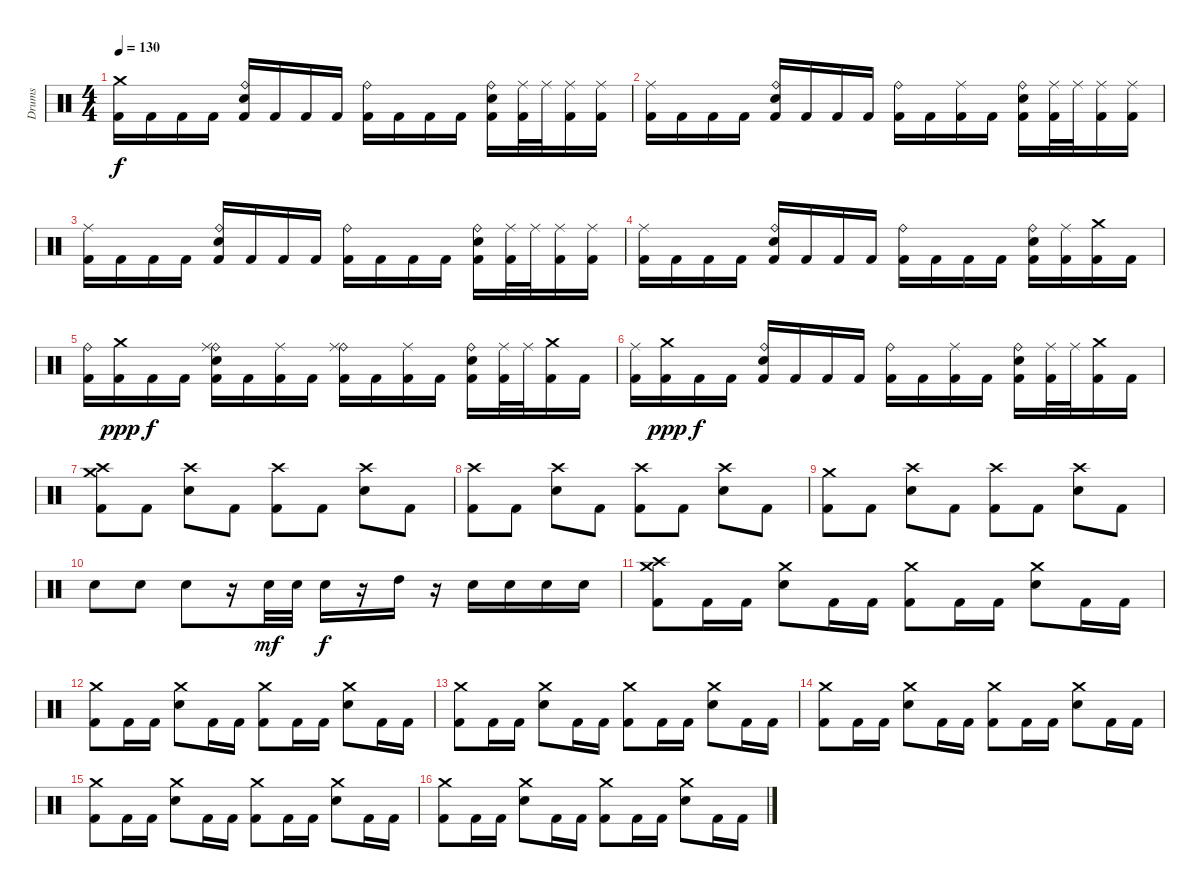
\track ("Drums" "Drums") {instrument percussion}
\staff {score}
\articulation defaults
\ts (4 4)
\tempo 130
\clef neutral
\ks c
("Crash medium (hit)" "Kick (hit) 2").16{dy f} "Kick (hit) 2".16 "Kick (hit) 2".16 "Kick (hit) 2".16 ("Ride (bell)" "Snare (hit) 2" "Kick (hit) 2").16 "Kick (hit) 2".16 "Kick (hit) 2".16 "Kick (hit) 2".16 ("Ride (bell)" "Kick (hit) 2").16 "Kick (hit) 2".16 "Kick (hit) 2".16 "Kick (hit) 2".16 ("Ride (bell)" "Snare (hit) 2" "Kick (hit) 2").16 ("Ride (middle)" "Kick (hit) 2").32 "Ride (middle)".32 ("Ride (middle)" "Kick (hit) 2").16 ("Ride (middle)" "Kick (hit) 2").16 |
("Ride (middle)" "Kick (hit) 2").16 "Kick (hit) 2".16 "Kick (hit) 2".16 "Kick (hit) 2".16 ("Ride (bell)" "Snare (hit) 2" "Kick (hit) 2").16 "Kick (hit) 2".16 "Kick (hit) 2".16 "Kick (hit) 2".16 ("Ride (bell)" "Kick (hit) 2").16 "Kick (hit) 2".16 ("Ride (middle)" "Kick (hit) 2").16 "Kick (hit) 2".16 ("Ride (bell)" "Snare (hit) 2" "Kick (hit) 2").16 ("Ride (middle)" "Kick (hit) 2").32 "Ride (middle)".32 ("Ride (middle)" "Kick (hit) 2").16 ("Ride (middle)" "Kick (hit) 2").16 |
("Ride (middle)" "Kick (hit) 2").16 "Kick (hit) 2".16 "Kick (hit) 2".16 "Kick (hit) 2".16 ("Ride (bell)" "Snare (hit) 2" "Kick (hit) 2").16 "Kick (hit) 2".16 "Kick (hit) 2".16 "Kick (hit) 2".16 ("Ride (bell)" "Kick (hit) 2").16 "Kick (hit) 2".16 "Kick (hit) 2".16 "Kick (hit) 2".16 ("Ride (bell)" "Snare (hit) 2" "Kick (hit) 2").16 ("Ride (middle)" "Kick (hit) 2").32 "Ride (middle)".32 ("Ride (middle)" "Kick (hit) 2").16 ("Ride (middle)" "Kick (hit) 2").16 |
("Ride (middle)" "Kick (hit) 2").16 "Kick (hit) 2".16 "Kick (hit) 2".16 "Kick (hit) 2".16 ("Ride (bell)" "Snare (hit) 2" "Kick (hit) 2").16 "Kick (hit) 2".16 "Kick (hit) 2".16 "Kick (hit) 2".16 ("Ride (bell)" "Kick (hit) 2").16 "Kick (hit) 2".16 "Kick (hit) 2".16 "Kick (hit) 2".16 ("Ride (bell)" "Snare (hit) 2" "Kick (hit) 2").16 ("Ride (middle)" "Kick (hit) 2").16 ("Crash medium (hit)" "Kick (hit) 2").16 "Kick (hit) 2".16 |
("Ride (bell)" "Kick (hit) 2").16 ("Crash medium (hit)" "Kick (hit) 2").16{dy ppp} "Kick (hit) 2".16{dy f} "Kick (hit) 2".16 ("Ride (bell)" "Ride (middle)" "Snare (hit) 2" "Kick (hit) 2").16 "Kick (hit) 2".16 ("Ride (middle)" "Kick (hit) 2").16 "Kick (hit) 2".16 ("Ride (bell)" "Ride (middle)" "Kick (hit) 2").16 "Kick (hit) 2".16 ("Ride (middle)" "Kick (hit) 2").16 "Kick (hit) 2".16 ("Ride (bell)" "Snare (hit) 2" "Kick (hit) 2").16 ("Ride (middle)" "Kick (hit) 2").32 "Ride (middle)".32 ("Crash medium (hit)" "Kick (hit) 2").16 "Kick (hit) 2".16 |
("Ride (middle)" "Kick (hit) 2").16 ("Crash medium (hit)" "Kick (hit) 2").16{dy ppp} "Kick (hit) 2".16{dy f} "Kick (hit) 2".16 ("Ride (bell)" "Snare (hit) 2" "Kick (hit) 2").16 "Kick (hit) 2".16 "Kick (hit) 2".16 "Kick (hit) 2".16 ("Ride (bell)" "Kick (hit) 2").16 "Kick (hit) 2".16 ("Ride (middle)" "Kick (hit) 2").16 "Kick (hit) 2".16 ("Ride (bell)" "Snare (hit) 2" "Kick (hit) 2").16 ("Ride (middle)" "Kick (hit) 2").32 "Ride (middle)".32 ("Crash medium (hit)" "Kick (hit) 2").16 "Kick (hit) 2".16 |
("Crash high (hit)" "Crash medium (hit)" "Kick (hit) 2").8 "Kick (hit) 2".8 ("Crash high (hit)" "Snare (hit) 2").8 "Kick (hit) 2".8 ("Crash high (hit)" "Kick (hit) 2").8 "Kick (hit) 2".8 ("Crash high (hit)" "Snare (hit) 2").8 "Kick (hit) 2".8 |
("Crash high (hit)" "Kick (hit) 2").8 "Kick (hit) 2".8 ("Crash high (hit)" "Snare (hit) 2").8 "Kick (hit) 2".8 ("Crash high (hit)" "Kick (hit) 2").8 "Kick (hit) 2".8 ("Crash high (hit)" "Snare (hit) 2").8 "Kick (hit) 2".8 |
("Crash medium (hit)" "Kick (hit) 2").8 "Kick (hit) 2".8 ("Crash high (hit)" "Snare (hit) 2").8 "Kick (hit) 2".8 ("Crash high (hit)" "Kick (hit) 2").8 "Kick (hit) 2".8 ("Crash high (hit)" "Snare (hit) 2").8 "Kick (hit) 2".8 |
"Snare (hit) 2".8 "Snare (hit) 2".8 "Snare (hit) 2".8 r.16 "Snare (hit) 2".32{dy mf} "Snare (hit) 2".32 "Snare (hit) 2".16{dy f} r.16 "High Tom (hit)".16 r.16 "Snare (hit) 2".16 "Snare (hit) 2".16 "Snare (hit) 2".16 "Snare (hit) 2".16 |
("Crash high (hit)" "Crash medium (hit)" "Kick (hit) 2").8 "Kick (hit) 2".16 "Kick (hit) 2".16 ("Crash medium (hit)" "Snare (hit) 2").8 "Kick (hit) 2".16 "Kick (hit) 2".16 ("Crash medium (hit)" "Kick (hit) 2").8 "Kick (hit) 2".16 "Kick (hit) 2".16 ("Crash medium (hit)" "Snare (hit) 2").8 "Kick (hit) 2".16 "Kick (hit) 2".16 |
("Crash medium (hit)" "Kick (hit) 2").8 "Kick (hit) 2".16 "Kick (hit) 2".16 ("Crash medium (hit)" "Snare (hit) 2").8 "Kick (hit) 2".16 "Kick (hit) 2".16 ("Crash medium (hit)" "Kick (hit) 2").8 "Kick (hit) 2".16 "Kick (hit) 2".16 ("Crash medium (hit)" "Snare (hit) 2").8 "Kick (hit) 2".16 "Kick (hit) 2".16 |
("Crash medium (hit)" "Kick (hit) 2").8 "Kick (hit) 2".16 "Kick (hit) 2".16 ("Crash medium (hit)" "Snare (hit) 2").8 "Kick (hit) 2".16 "Kick (hit) 2".16 ("Crash medium (hit)" "Kick (hit) 2").8 "Kick (hit) 2".16 "Kick (hit) 2".16 ("Crash medium (hit)" "Snare (hit) 2").8 "Kick (hit) 2".16 "Kick (hit) 2".16 |
("Crash medium (hit)" "Kick (hit) 2").8 "Kick (hit) 2".16 "Kick (hit) 2".16 ("Crash medium (hit)" "Snare (hit) 2").8 "Kick (hit) 2".16 "Kick (hit) 2".16 ("Crash medium (hit)" "Kick (hit) 2").8 "Kick (hit) 2".16 "Kick (hit) 2".16 ("Crash medium (hit)" "Snare (hit) 2").8 "Kick (hit) 2".16 "Kick (hit) 2".16 |
("Crash medium (hit)" "Kick (hit) 2").8 "Kick (hit) 2".16 "Kick (hit) 2".16 ("Crash medium (hit)" "Snare (hit) 2").8 "Kick (hit) 2".16 "Kick (hit) 2".16 ("Crash medium (hit)" "Kick (hit) 2").8 "Kick (hit) 2".16 "Kick (hit) 2".16 ("Crash medium (hit)" "Snare (hit) 2").8 "Kick (hit) 2".16 "Kick (hit) 2".16 |
("Crash medium (hit)" "Kick (hit) 2").8 "Kick (hit) 2".16 "Kick (hit) 2".16 ("Crash medium (hit)" "Snare (hit) 2").8 "Kick (hit) 2".16 "Kick (hit) 2".16 ("Crash medium (hit)" "Kick (hit) 2").8 "Kick (hit) 2".16 "Kick (hit) 2".16 ("Crash medium (hit)" "Snare (hit) 2").8 "Kick (hit) 2".16 "Kick (hit) 2".16
